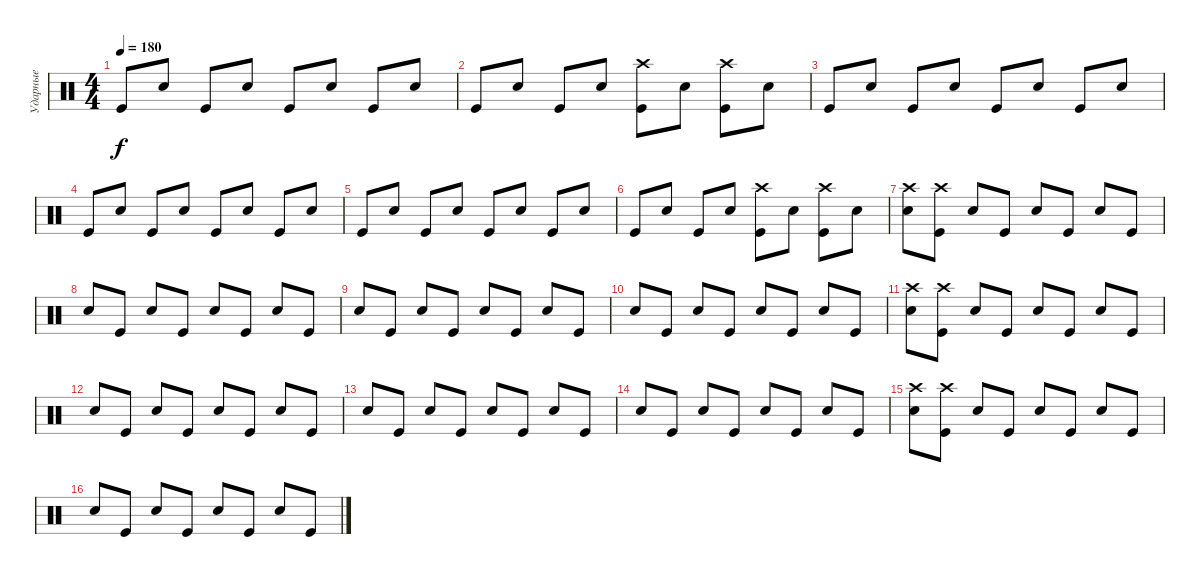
\track ("Ударные" "Ударные") {instrument percussion}
\staff {score}
\articulation defaults
\ts (4 4)
\tempo 180
\clef neutral
\ks c "Kick (hit)".8{dy f} "Snare (hit) 2".8 "Kick (hit)".8 "Snare (hit) 2".8 "Kick (hit)".8 "Snare (hit) 2".8 "Kick (hit)".8 "Snare (hit) 2".8
|
"Kick (hit)".8 "Snare (hit) 2".8 "Kick (hit)".8 "Snare (hit) 2".8 ("Crash high (hit)" "Kick (hit)").8 "Snare (hit) 2".8 ("Crash high (hit)" "Kick (hit)").8 "Snare (hit) 2".8 |
"Kick (hit)".8 "Snare (hit) 2".8 "Kick (hit)".8 "Snare (hit) 2".8 "Kick (hit)".8 "Snare (hit) 2".8 "Kick (hit)".8 "Snare (hit) 2".8 |
"Kick (hit)".8 "Snare (hit) 2".8 "Kick (hit)".8 "Snare (hit) 2".8 "Kick (hit)".8 "Snare (hit) 2".8 "Kick (hit)".8 "Snare (hit) 2".8 |
"Kick (hit)".8 "Snare (hit) 2".8 "Kick (hit)".8 "Snare (hit) 2".8 "Kick (hit)".8 "Snare (hit) 2".8 "Kick (hit)".8 "Snare (hit) 2".8 |
"Kick (hit)".8 "Snare (hit) 2".8 "Kick (hit)".8 "Snare (hit) 2".8 ("Crash high (hit)" "Kick (hit)").8 "Snare (hit) 2".8 ("Crash high (hit)" "Kick (hit)").8 "Snare (hit) 2".8 |
("Crash high (hit)" "Snare (hit) 2").8 ("Crash high (hit)" "Kick (hit)").8 "Snare (hit) 2".8 "Kick (hit)".8 "Snare (hit) 2".8 "Kick (hit)".8 "Snare (hit) 2".8 "Kick (hit)".8 |
"Snare (hit) 2".8 "Kick (hit)".8 "Snare (hit) 2".8 "Kick (hit)".8 "Snare (hit) 2".8 "Kick (hit)".8 "Snare (hit) 2".8 "Kick (hit)".8 |
"Snare (hit) 2".8 "Kick (hit)".8 "Snare (hit) 2".8 "Kick (hit)".8 "Snare (hit) 2".8 "Kick (hit)".8 "Snare (hit) 2".8 "Kick (hit)".8 |
"Snare (hit) 2".8 "Kick (hit)".8 "Snare (hit) 2".8 "Kick (hit)".8 "Snare (hit) 2".8 "Kick (hit)".8 "Snare (hit) 2".8 "Kick (hit)".8 |
("Crash high (hit)" "Snare (hit) 2").8 ("Crash high (hit)" "Kick (hit)").8 "Snare (hit) 2".8 "Kick (hit)".8 "Snare (hit) 2".8 "Kick (hit)".8 "Snare (hit) 2".8 "Kick (hit)".8 |
"Snare (hit) 2".8 "Kick (hit)".8 "Snare (hit) 2".8 "Kick (hit)".8 "Snare (hit) 2".8 "Kick (hit)".8 "Snare (hit) 2".8 "Kick (hit)".8 |
"Snare (hit) 2".8 "Kick (hit)".8 "Snare (hit) 2".8 "Kick (hit)".8 "Snare (hit) 2".8 "Kick (hit)".8 "Snare (hit) 2".8 "Kick (hit)".8 |
"Snare (hit) 2".8 "Kick (hit)".8 "Snare (hit) 2".8 "Kick (hit)".8 "Snare (hit) 2".8 "Kick (hit)".8 "Snare (hit) 2".8 "Kick (hit)".8 |
("Crash high (hit)" "Snare (hit) 2").8 ("Crash high (hit)" "Kick (hit)").8 "Snare (hit) 2".8 "Kick (hit)".8 "Snare (hit) 2".8 "Kick (hit)".8 "Snare (hit) 2".8 "Kick (hit)".8 |
"Snare (hit) 2".8 "Kick (hit)".8 "Snare (hit) 2".8 "Kick (hit)".8 "Snare (hit) 2".8 "Kick (hit)".8 "Snare (hit) 2".8 "Kick (hit)".8
